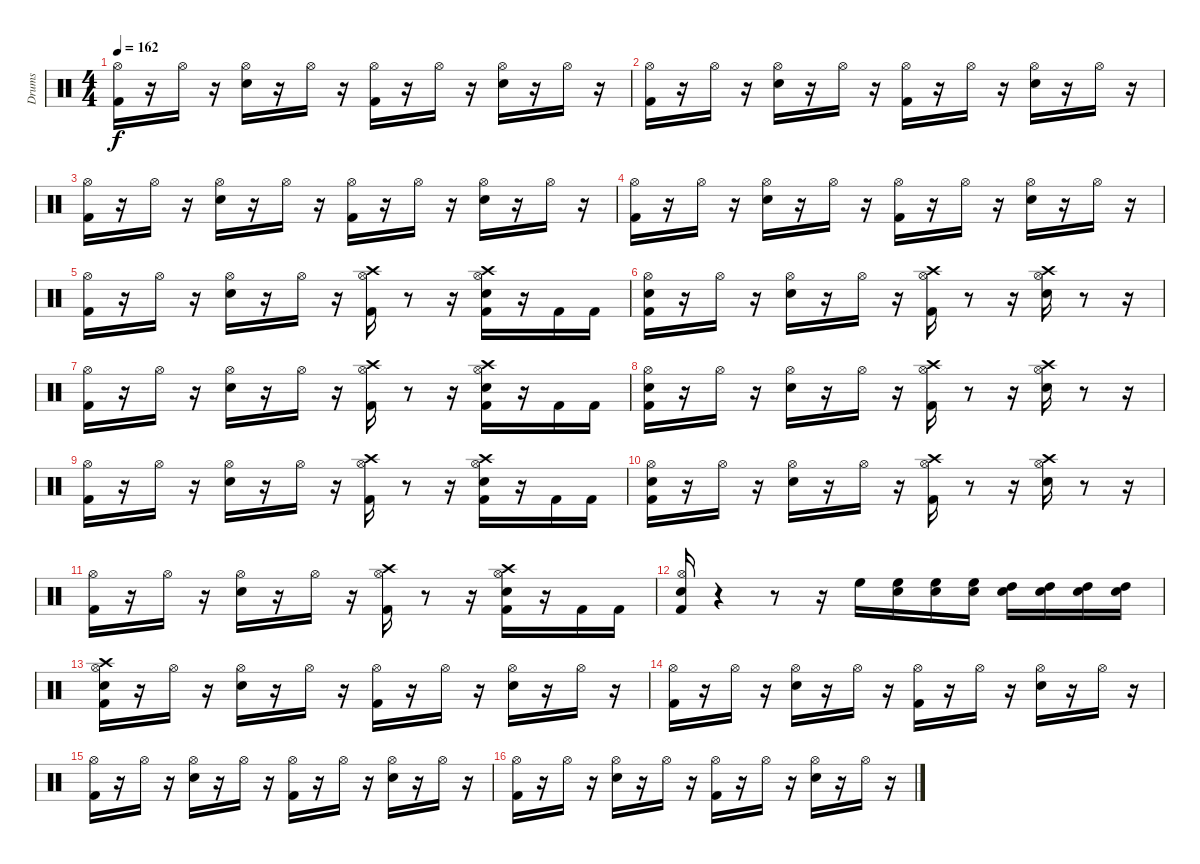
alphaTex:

\track ("Drums" "Drums") {instrument percussion}
\staff {score}
\articulation defaults
\ts (4 4)
\tempo 162
\clef neutral
\ks c
("Kick (hit) 2" "Hi-Hat (open)").16{dy f} r.16 "Hi-Hat (open)".16 r.16 ("Electric Snare (hit)" "Hi-Hat (open)").16 r.16 "Hi-Hat (open)".16 r.16 ("Hi-Hat (open)" "Kick (hit) 2").16 r.16 "Hi-Hat (open)".16 r.16 ("Hi-Hat (open)" "Electric Snare (hit)").16 r.16 "Hi-Hat (open)".16 r.16 |
("Kick (hit) 2" "Hi-Hat (open)").16 r.16 "Hi-Hat (open)".16 r.16 ("Electric Snare (hit)" "Hi-Hat (open)").16 r.16 "Hi-Hat (open)".16 r.16 ("Hi-Hat (open)" "Kick (hit) 2").16 r.16 "Hi-Hat (open)".16 r.16 ("Hi-Hat (open)" "Electric Snare (hit)").16 r.16 "Hi-Hat (open)".16 r.16 |
("Kick (hit) 2" "Hi-Hat (open)").16 r.16 "Hi-Hat (open)".16 r.16 ("Electric Snare (hit)" "Hi-Hat (open)").16 r.16 "Hi-Hat (open)".16 r.16 ("Hi-Hat (open)" "Kick (hit) 2").16 r.16 "Hi-Hat (open)".16 r.16 ("Hi-Hat (open)" "Electric Snare (hit)").16 r.16 "Hi-Hat (open)".16 r.16 |
("Kick (hit) 2" "Hi-Hat (open)").16 r.16 "Hi-Hat (open)".16 r.16 ("Electric Snare (hit)" "Hi-Hat (open)").16 r.16 "Hi-Hat (open)".16 r.16 ("Hi-Hat (open)" "Kick (hit) 2").16 r.16 "Hi-Hat (open)".16 r.16 ("Hi-Hat (open)" "Electric Snare (hit)").16 r.16 "Hi-Hat (open)".16 r.16 |
("Kick (hit) 2" "Hi-Hat (open)").16 r.16 "Hi-Hat (open)".16 r.16 ("Electric Snare (hit)" "Hi-Hat (open)").16 r.16 "Hi-Hat (open)".16 r.16 ("Hi-Hat (open)" "Kick (hit) 2" "Crash high (hit)").16 r.8 r.16 ("Hi-Hat (open)" "Electric Snare (hit)" "Crash high (hit)" "Kick (hit) 2").16 r.16 "Kick (hit) 2".16 "Kick (hit) 2".16 |
("Snare (hit)" "Kick (hit) 2" "Hi-Hat (open)").16 r.16 "Hi-Hat (open)".16 r.16 ("Electric Snare (hit)" "Hi-Hat (open)").16 r.16 "Hi-Hat (open)".16 r.16 ("Hi-Hat (open)" "Kick (hit) 2" "Crash high (hit)").16 r.8 r.16 ("Hi-Hat (open)" "Electric Snare (hit)" "Crash high (hit)").16 r.8 r.16 |
("Kick (hit) 2" "Hi-Hat (open)").16 r.16 "Hi-Hat (open)".16 r.16 ("Electric Snare (hit)" "Hi-Hat (open)").16 r.16 "Hi-Hat (open)".16 r.16 ("Hi-Hat (open)" "Kick (hit) 2" "Crash high (hit)").16 r.8 r.16 ("Hi-Hat (open)" "Electric Snare (hit)" "Crash high (hit)" "Kick (hit) 2").16 r.16 "Kick (hit) 2".16 "Kick (hit) 2".16 |
("Snare (hit)" "Kick (hit) 2" "Hi-Hat (open)").16 r.16 "Hi-Hat (open)".16 r.16 ("Electric Snare (hit)" "Hi-Hat (open)").16 r.16 "Hi-Hat (open)".16 r.16 ("Hi-Hat (open)" "Kick (hit) 2" "Crash high (hit)").16 r.8 r.16 ("Hi-Hat (open)" "Electric Snare (hit)" "Crash high (hit)").16 r.8 r.16 |
("Kick (hit) 2" "Hi-Hat (open)").16 r.16 "Hi-Hat (open)".16 r.16 ("Electric Snare (hit)" "Hi-Hat (open)").16 r.16 "Hi-Hat (open)".16 r.16 ("Hi-Hat (open)" "Kick (hit) 2" "Crash high (hit)").16 r.8 r.16 ("Hi-Hat (open)" "Electric Snare (hit)" "Crash high (hit)" "Kick (hit) 2").16 r.16 "Kick (hit) 2".16 "Kick (hit) 2".16 |
("Snare (hit)" "Kick (hit) 2" "Hi-Hat (open)").16 r.16 "Hi-Hat (open)".16 r.16 ("Electric Snare (hit)" "Hi-Hat (open)").16 r.16 "Hi-Hat (open)".16 r.16 ("Hi-Hat (open)" "Kick (hit) 2" "Crash high (hit)").16 r.8 r.16 ("Hi-Hat (open)" "Electric Snare (hit)" "Crash high (hit)").16 r.8 r.16 |
("Kick (hit) 2" "Hi-Hat (open)").16 r.16 "Hi-Hat (open)".16 r.16 ("Electric Snare (hit)" "Hi-Hat (open)").16 r.16 "Hi-Hat (open)".16 r.16 ("Hi-Hat (open)" "Kick (hit) 2" "Crash high (hit)").16 r.8 r.16 ("Hi-Hat (open)" "Electric Snare (hit)" "Crash high (hit)" "Kick (hit) 2").16 r.16 "Kick (hit) 2".16 "Kick (hit) 2".16 |
("Snare (hit)" "Kick (hit) 2" "Hi-Hat (open)").16 r.4 r.8 r.16 "High Floor Tom (hit)".16 ("Snare (hit)" "High Floor Tom (hit)").16 ("Snare (hit)" "High Floor Tom (hit)").16 ("Snare (hit)" "High Floor Tom (hit)").16 ("Snare (hit)" "High Tom (hit)").16 ("Snare (hit)" "High Tom (hit)").16 ("Snare (hit)" "High Tom (hit)").16 ("Snare (hit)" "High Tom (hit)").16 |
("Snare (hit)" "Kick (hit) 2" "Hi-Hat (open)" "Crash high (hit)").16 r.16 "Hi-Hat (open)".16 r.16 ("Electric Snare (hit)" "Hi-Hat (open)").16 r.16 "Hi-Hat (open)".16 r.16 ("Hi-Hat (open)" "Kick (hit) 2").16 r.16 "Hi-Hat (open)".16 r.16 ("Hi-Hat (open)" "Electric Snare (hit)").16 r.16 "Hi-Hat (open)".16 r.16 |
("Kick (hit) 2" "Hi-Hat (open)").16 r.16 "Hi-Hat (open)".16 r.16 ("Electric Snare (hit)" "Hi-Hat (open)").16 r.16 "Hi-Hat (open)".16 r.16 ("Hi-Hat (open)" "Kick (hit) 2").16 r.16 "Hi-Hat (open)".16 r.16 ("Hi-Hat (open)" "Electric Snare (hit)").16 r.16 "Hi-Hat (open)".16 r.16 |
("Kick (hit) 2" "Hi-Hat (open)").16 r.16 "Hi-Hat (open)".16 r.16 ("Electric Snare (hit)" "Hi-Hat (open)").16 r.16 "Hi-Hat (open)".16 r.16 ("Hi-Hat (open)" "Kick (hit) 2").16 r.16 "Hi-Hat (open)".16 r.16 ("Hi-Hat (open)" "Electric Snare (hit)").16 r.16 "Hi-Hat (open)".16 r.16 |
("Kick (hit) 2" "Hi-Hat (open)").16 r.16 "Hi-Hat (open)".16 r.16 ("Electric Snare (hit)" "Hi-Hat (open)").16 r.16 "Hi-Hat (open)".16 r.16 ("Hi-Hat (open)" "Kick (hit) 2").16 r.16 "Hi-Hat (open)".16 r.16 ("Hi-Hat (open)" "Electric Snare (hit)").16 r.16 "Hi-Hat (open)".16 r.16
